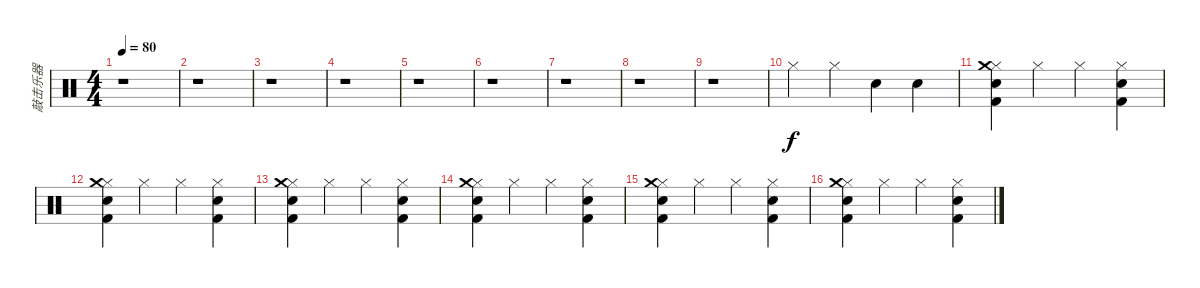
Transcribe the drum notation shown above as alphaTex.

\track ("敲击乐器" "敲击乐器") {instrument percussion}
\staff {score}
\articulation defaults
\ts (4 4)
\tempo 80
\clef neutral
\ks c
r.1{dy f} |
r.1 |
r.1 |
r.1 |
r.1 |
r.1 |
r.1 |
r.1 |
r.1 |
"Hi-Hat (closed)".4 "Hi-Hat (closed)".4 "Snare (hit) 2".4 "Electric Snare (hit)".4 |
("Hi-Hat (closed)" "Snare (hit) 2" "Kick (hit) 2" "Crash medium (hit)").4 "Hi-Hat (closed)".4 "Hi-Hat (closed)".4 ("Hi-Hat (closed)" "Snare (hit) 2" "Kick (hit) 2").4 |
("Hi-Hat (closed)" "Snare (hit) 2" "Kick (hit) 2" "Crash medium (hit)").4 "Hi-Hat (closed)".4 "Hi-Hat (closed)".4 ("Hi-Hat (closed)" "Snare (hit) 2" "Kick (hit) 2").4 |
("Hi-Hat (closed)" "Snare (hit) 2" "Kick (hit) 2" "Crash medium (hit)").4 "Hi-Hat (closed)".4 "Hi-Hat (closed)".4 ("Hi-Hat (closed)" "Snare (hit) 2" "Kick (hit) 2").4 |
("Hi-Hat (closed)" "Snare (hit) 2" "Kick (hit) 2" "Crash medium (hit)").4 "Hi-Hat (closed)".4 "Hi-Hat (closed)".4 ("Hi-Hat (closed)" "Snare (hit) 2" "Kick (hit) 2").4 |
("Hi-Hat (closed)" "Snare (hit) 2" "Kick (hit) 2" "Crash medium (hit)").4 "Hi-Hat (closed)".4 "Hi-Hat (closed)".4 ("Hi-Hat (closed)" "Snare (hit) 2" "Kick (hit) 2").4 |
("Hi-Hat (closed)" "Snare (hit) 2" "Kick (hit) 2" "Crash medium (hit)").4 "Hi-Hat (closed)".4 "Hi-Hat (closed)".4 ("Hi-Hat (closed)" "Snare (hit) 2" "Kick (hit) 2").4
